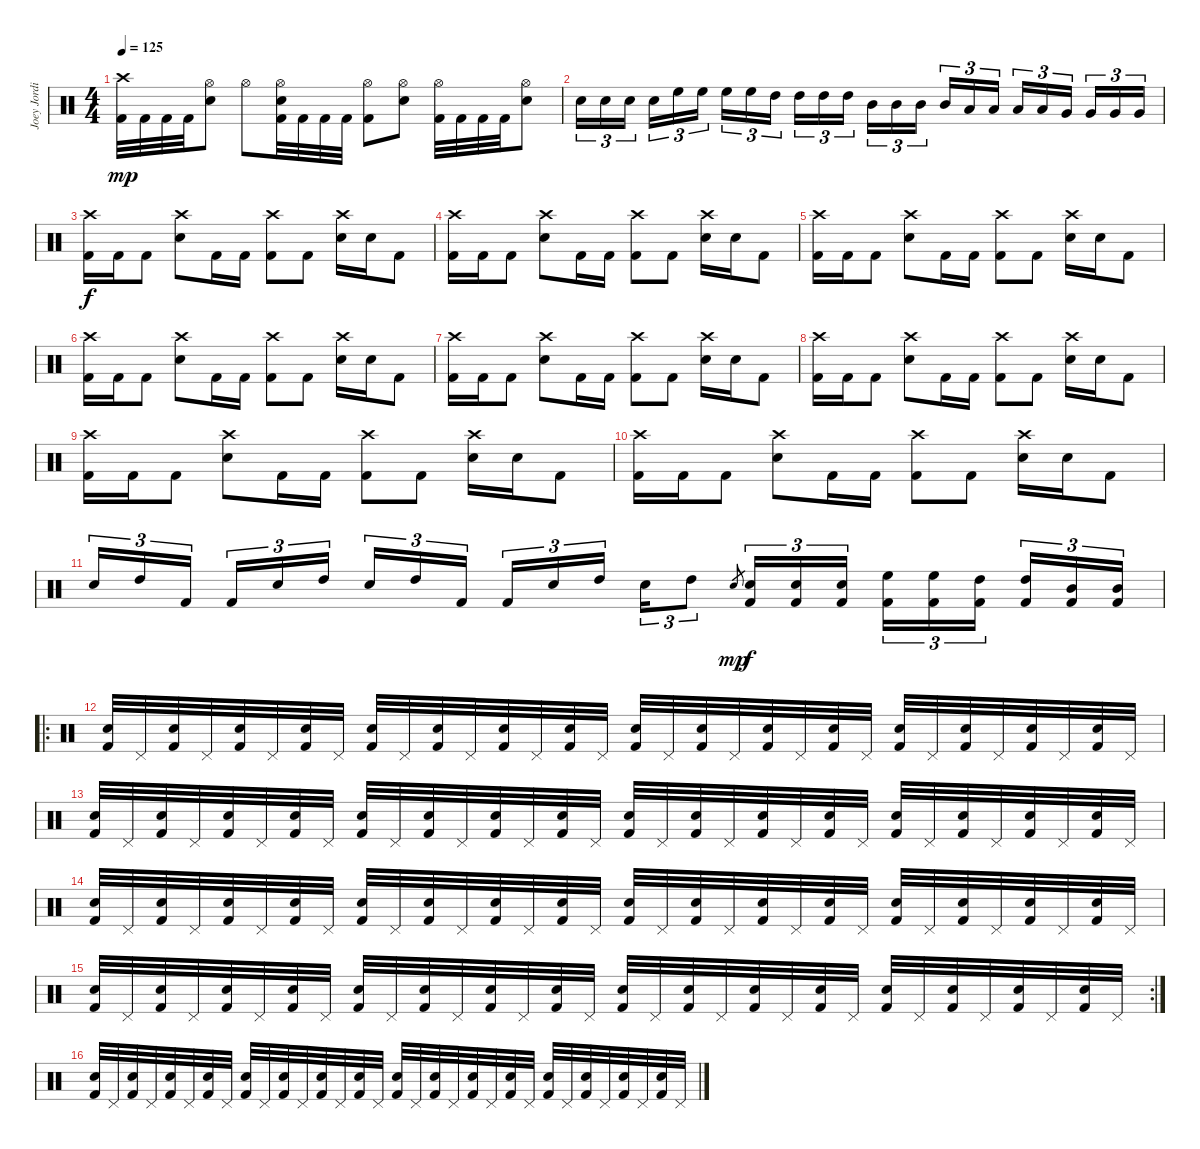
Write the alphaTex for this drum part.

\track ("Joey Jordison" "Joey Jordi") {instrument percussion}
\staff {score}
\articulation defaults
\ts (4 4)
\tempo 125
\clef neutral
\ks c
("Crash high (hit)" "Kick (hit) 2").32{dy mp} "Kick (hit) 2".32 "Kick (hit) 2".32 "Kick (hit) 2".32 ("Hi-Hat (open)" "Electric Snare (hit)").8 "Hi-Hat (open)".8 ("Hi-Hat (open)" "Electric Snare (hit)" "Kick (hit) 2").32 "Kick (hit) 2".32 "Kick (hit) 2".32 "Kick (hit) 2".32 ("Hi-Hat (open)" "Kick (hit) 2").8 ("Hi-Hat (open)" "Electric Snare (hit)").8 ("Hi-Hat (open)" "Kick (hit) 2").32 "Kick (hit) 2".32 "Kick (hit) 2".32 "Kick (hit) 2".32 ("Hi-Hat (open)" "Electric Snare (hit)").8 |
"Electric Snare (hit)".16{tu (3 2)} "Electric Snare (hit)".16{tu (3 2)} "Electric Snare (hit)".16{tu (3 2) beam splitsecondary} "Electric Snare (hit)".16{tu (3 2)} "High Floor Tom (hit)".16{tu (3 2)} "High Floor Tom (hit)".16{tu (3 2)} "High Floor Tom (hit)".16{tu (3 2)} "High Floor Tom (hit)".16{tu (3 2)} "High Tom (hit)".16{tu (3 2) beam splitsecondary} "High Tom (hit)".16{tu (3 2)} "High Tom (hit)".16{tu (3 2)} "High Tom (hit)".16{tu (3 2)} "Mid Tom (hit)".16{tu (3 2)} "Mid Tom (hit)".16{tu (3 2)} "Mid Tom (hit)".16{tu (3 2) beam splitsecondary} "Mid Tom (hit)".16{tu (3 2)} "Low Tom (hit)".16{tu (3 2)} "Low Tom (hit)".16{tu (3 2)} "Low Tom (hit)".16{tu (3 2)} "Low Tom (hit)".16{tu (3 2)} "Very Low Tom (hit)".16{tu (3 2) beam splitsecondary} "Very Low Tom (hit)".16{tu (3 2)} "Very Low Tom (hit)".16{tu (3 2)} "Very Low Tom (hit)".16{tu (3 2)} |
("Crash high (hit)" "Kick (hit) 2").16{dy f} "Kick (hit) 2".16 "Kick (hit) 2".8 ("Crash high (hit)" "Electric Snare (hit)").8 "Kick (hit) 2".16 "Kick (hit) 2".16 ("Crash high (hit)" "Kick (hit) 2").8 "Kick (hit) 2".8 ("Crash high (hit)" "Electric Snare (hit)").16 "Electric Snare (hit)".16 "Kick (hit) 2".8 |
("Crash high (hit)" "Kick (hit) 2").16 "Kick (hit) 2".16 "Kick (hit) 2".8 ("Crash high (hit)" "Electric Snare (hit)").8 "Kick (hit) 2".16 "Kick (hit) 2".16 ("Crash high (hit)" "Kick (hit) 2").8 "Kick (hit) 2".8 ("Crash high (hit)" "Electric Snare (hit)").16 "Electric Snare (hit)".16 "Kick (hit) 2".8 |
("Crash high (hit)" "Kick (hit) 2").16 "Kick (hit) 2".16 "Kick (hit) 2".8 ("Crash high (hit)" "Electric Snare (hit)").8 "Kick (hit) 2".16 "Kick (hit) 2".16 ("Crash high (hit)" "Kick (hit) 2").8 "Kick (hit) 2".8 ("Crash high (hit)" "Electric Snare (hit)").16 "Electric Snare (hit)".16 "Kick (hit) 2".8 |
("Crash high (hit)" "Kick (hit) 2").16 "Kick (hit) 2".16 "Kick (hit) 2".8 ("Crash high (hit)" "Electric Snare (hit)").8 "Kick (hit) 2".16 "Kick (hit) 2".16 ("Crash high (hit)" "Kick (hit) 2").8 "Kick (hit) 2".8 ("Crash high (hit)" "Electric Snare (hit)").16 "Electric Snare (hit)".16 "Kick (hit) 2".8 |
("Crash high (hit)" "Kick (hit) 2").16 "Kick (hit) 2".16 "Kick (hit) 2".8 ("Crash high (hit)" "Electric Snare (hit)").8 "Kick (hit) 2".16 "Kick (hit) 2".16 ("Crash high (hit)" "Kick (hit) 2").8 "Kick (hit) 2".8 ("Crash high (hit)" "Electric Snare (hit)").16 "Electric Snare (hit)".16 "Kick (hit) 2".8 |
("Crash high (hit)" "Kick (hit) 2").16 "Kick (hit) 2".16 "Kick (hit) 2".8 ("Crash high (hit)" "Electric Snare (hit)").8 "Kick (hit) 2".16 "Kick (hit) 2".16 ("Crash high (hit)" "Kick (hit) 2").8 "Kick (hit) 2".8 ("Crash high (hit)" "Electric Snare (hit)").16 "Electric Snare (hit)".16 "Kick (hit) 2".8 |
("Crash high (hit)" "Kick (hit) 2").16 "Kick (hit) 2".16 "Kick (hit) 2".8 ("Crash high (hit)" "Electric Snare (hit)").8 "Kick (hit) 2".16 "Kick (hit) 2".16 ("Crash high (hit)" "Kick (hit) 2").8 "Kick (hit) 2".8 ("Crash high (hit)" "Electric Snare (hit)").16 "Electric Snare (hit)".16 "Kick (hit) 2".8 |
("Crash high (hit)" "Kick (hit) 2").16 "Kick (hit) 2".16 "Kick (hit) 2".8 ("Crash high (hit)" "Electric Snare (hit)").8 "Kick (hit) 2".16 "Kick (hit) 2".16 ("Crash high (hit)" "Kick (hit) 2").8 "Kick (hit) 2".8 ("Crash high (hit)" "Electric Snare (hit)").16 "Electric Snare (hit)".16 "Kick (hit) 2".8 |
"Electric Snare (hit)".16{tu (3 2)} "High Tom (hit)".16{tu (3 2)} "Kick (hit) 2".16{tu (3 2) beam splitsecondary} "Kick (hit) 2".16{tu (3 2)} "Electric Snare (hit)".16{tu (3 2)} "High Tom (hit)".16{tu (3 2)} "Electric Snare (hit)".16{tu (3 2)} "High Tom (hit)".16{tu (3 2)} "Kick (hit) 2".16{tu (3 2) beam splitsecondary} "Kick (hit) 2".16{tu (3 2)} "Electric Snare (hit)".16{tu (3 2)} "High Tom (hit)".16{tu (3 2)} "Electric Snare (hit)".16{tu (3 2)} "High Tom (hit)".8{tu (3 2)} "Electric Snare (hit)".8{gr dy mp} ("Electric Snare (hit)" "Kick (hit) 2").16{tu (3 2) dy f} ("Electric Snare (hit)" "Kick (hit) 2").16{tu (3 2)} ("Electric Snare (hit)" "Kick (hit) 2").16{tu (3 2)} ("High Floor Tom (hit)" "Kick (hit) 2").16{tu (3 2)} ("High Floor Tom (hit)" "Kick (hit) 2").16{tu (3 2)} ("High Tom (hit)" "Kick (hit) 2").16{tu (3 2) beam splitsecondary} ("High Tom (hit)" "Kick (hit) 2").16{tu (3 2)} ("Mid Tom (hit)" "Kick (hit) 2").16{tu (3 2)} ("Mid Tom (hit)" "Kick (hit) 2").16{tu (3 2)} |
\ro
("Electric Snare (hit)" "Kick (hit) 2").32 "Pedal Hi-Hat (hit)".32 ("Electric Snare (hit)" "Kick (hit) 2").32 "Pedal Hi-Hat (hit)".32 ("Electric Snare (hit)" "Kick (hit) 2").32 "Pedal Hi-Hat (hit)".32 ("Electric Snare (hit)" "Kick (hit) 2").32 "Pedal Hi-Hat (hit)".32 ("Electric Snare (hit)" "Kick (hit) 2").32 "Pedal Hi-Hat (hit)".32 ("Electric Snare (hit)" "Kick (hit) 2").32 "Pedal Hi-Hat (hit)".32 ("Electric Snare (hit)" "Kick (hit) 2").32 "Pedal Hi-Hat (hit)".32 ("Electric Snare (hit)" "Kick (hit) 2").32 "Pedal Hi-Hat (hit)".32 ("Electric Snare (hit)" "Kick (hit) 2").32 "Pedal Hi-Hat (hit)".32 ("Electric Snare (hit)" "Kick (hit) 2").32 "Pedal Hi-Hat (hit)".32 ("Electric Snare (hit)" "Kick (hit) 2").32 "Pedal Hi-Hat (hit)".32 ("Electric Snare (hit)" "Kick (hit) 2").32 "Pedal Hi-Hat (hit)".32 ("Electric Snare (hit)" "Kick (hit) 2").32 "Pedal Hi-Hat (hit)".32 ("Electric Snare (hit)" "Kick (hit) 2").32 "Pedal Hi-Hat (hit)".32 ("Electric Snare (hit)" "Kick (hit) 2").32 "Pedal Hi-Hat (hit)".32 ("Electric Snare (hit)" "Kick (hit) 2").32 "Pedal Hi-Hat (hit)".32 |
("Electric Snare (hit)" "Kick (hit) 2").32 "Pedal Hi-Hat (hit)".32 ("Electric Snare (hit)" "Kick (hit) 2").32 "Pedal Hi-Hat (hit)".32 ("Electric Snare (hit)" "Kick (hit) 2").32 "Pedal Hi-Hat (hit)".32 ("Electric Snare (hit)" "Kick (hit) 2").32 "Pedal Hi-Hat (hit)".32 ("Electric Snare (hit)" "Kick (hit) 2").32 "Pedal Hi-Hat (hit)".32 ("Electric Snare (hit)" "Kick (hit) 2").32 "Pedal Hi-Hat (hit)".32 ("Electric Snare (hit)" "Kick (hit) 2").32 "Pedal Hi-Hat (hit)".32 ("Electric Snare (hit)" "Kick (hit) 2").32 "Pedal Hi-Hat (hit)".32 ("Electric Snare (hit)" "Kick (hit) 2").32 "Pedal Hi-Hat (hit)".32 ("Electric Snare (hit)" "Kick (hit) 2").32 "Pedal Hi-Hat (hit)".32 ("Electric Snare (hit)" "Kick (hit) 2").32 "Pedal Hi-Hat (hit)".32 ("Electric Snare (hit)" "Kick (hit) 2").32 "Pedal Hi-Hat (hit)".32 ("Electric Snare (hit)" "Kick (hit) 2").32 "Pedal Hi-Hat (hit)".32 ("Electric Snare (hit)" "Kick (hit) 2").32 "Pedal Hi-Hat (hit)".32 ("Electric Snare (hit)" "Kick (hit) 2").32 "Pedal Hi-Hat (hit)".32 ("Electric Snare (hit)" "Kick (hit) 2").32 "Pedal Hi-Hat (hit)".32 |
("Electric Snare (hit)" "Kick (hit) 2").32 "Pedal Hi-Hat (hit)".32 ("Electric Snare (hit)" "Kick (hit) 2").32 "Pedal Hi-Hat (hit)".32 ("Electric Snare (hit)" "Kick (hit) 2").32 "Pedal Hi-Hat (hit)".32 ("Electric Snare (hit)" "Kick (hit) 2").32 "Pedal Hi-Hat (hit)".32 ("Electric Snare (hit)" "Kick (hit) 2").32 "Pedal Hi-Hat (hit)".32 ("Electric Snare (hit)" "Kick (hit) 2").32 "Pedal Hi-Hat (hit)".32 ("Electric Snare (hit)" "Kick (hit) 2").32 "Pedal Hi-Hat (hit)".32 ("Electric Snare (hit)" "Kick (hit) 2").32 "Pedal Hi-Hat (hit)".32 ("Electric Snare (hit)" "Kick (hit) 2").32 "Pedal Hi-Hat (hit)".32 ("Electric Snare (hit)" "Kick (hit) 2").32 "Pedal Hi-Hat (hit)".32 ("Electric Snare (hit)" "Kick (hit) 2").32 "Pedal Hi-Hat (hit)".32 ("Electric Snare (hit)" "Kick (hit) 2").32 "Pedal Hi-Hat (hit)".32 ("Electric Snare (hit)" "Kick (hit) 2").32 "Pedal Hi-Hat (hit)".32 ("Electric Snare (hit)" "Kick (hit) 2").32 "Pedal Hi-Hat (hit)".32 ("Electric Snare (hit)" "Kick (hit) 2").32 "Pedal Hi-Hat (hit)".32 ("Electric Snare (hit)" "Kick (hit) 2").32 "Pedal Hi-Hat (hit)".32 |
\rc 2
("Electric Snare (hit)" "Kick (hit) 2").32 "Pedal Hi-Hat (hit)".32 ("Electric Snare (hit)" "Kick (hit) 2").32 "Pedal Hi-Hat (hit)".32 ("Electric Snare (hit)" "Kick (hit) 2").32 "Pedal Hi-Hat (hit)".32 ("Electric Snare (hit)" "Kick (hit) 2").32 "Pedal Hi-Hat (hit)".32 ("Electric Snare (hit)" "Kick (hit) 2").32 "Pedal Hi-Hat (hit)".32 ("Electric Snare (hit)" "Kick (hit) 2").32 "Pedal Hi-Hat (hit)".32 ("Electric Snare (hit)" "Kick (hit) 2").32 "Pedal Hi-Hat (hit)".32 ("Electric Snare (hit)" "Kick (hit) 2").32 "Pedal Hi-Hat (hit)".32 ("Electric Snare (hit)" "Kick (hit) 2").32 "Pedal Hi-Hat (hit)".32 ("Electric Snare (hit)" "Kick (hit) 2").32 "Pedal Hi-Hat (hit)".32 ("Electric Snare (hit)" "Kick (hit) 2").32 "Pedal Hi-Hat (hit)".32 ("Electric Snare (hit)" "Kick (hit) 2").32 "Pedal Hi-Hat (hit)".32 ("Electric Snare (hit)" "Kick (hit) 2").32 "Pedal Hi-Hat (hit)".32 ("Electric Snare (hit)" "Kick (hit) 2").32 "Pedal Hi-Hat (hit)".32 ("Electric Snare (hit)" "Kick (hit) 2").32 "Pedal Hi-Hat (hit)".32 ("Electric Snare (hit)" "Kick (hit) 2").32 "Pedal Hi-Hat (hit)".32 |
("Electric Snare (hit)" "Kick (hit) 2").32 "Pedal Hi-Hat (hit)".32 ("Electric Snare (hit)" "Kick (hit) 2").32 "Pedal Hi-Hat (hit)".32 ("Electric Snare (hit)" "Kick (hit) 2").32 "Pedal Hi-Hat (hit)".32 ("Electric Snare (hit)" "Kick (hit) 2").32 "Pedal Hi-Hat (hit)".32 ("Electric Snare (hit)" "Kick (hit) 2").32 "Pedal Hi-Hat (hit)".32 ("Electric Snare (hit)" "Kick (hit) 2").32 "Pedal Hi-Hat (hit)".32 ("Electric Snare (hit)" "Kick (hit) 2").32 "Pedal Hi-Hat (hit)".32 ("Electric Snare (hit)" "Kick (hit) 2").32 "Pedal Hi-Hat (hit)".32 ("Electric Snare (hit)" "Kick (hit) 2").32 "Pedal Hi-Hat (hit)".32 ("Electric Snare (hit)" "Kick (hit) 2").32 "Pedal Hi-Hat (hit)".32 ("Electric Snare (hit)" "Kick (hit) 2").32 "Pedal Hi-Hat (hit)".32 ("Electric Snare (hit)" "Kick (hit) 2").32 "Pedal Hi-Hat (hit)".32 ("Electric Snare (hit)" "Kick (hit) 2").32 "Pedal Hi-Hat (hit)".32 ("Electric Snare (hit)" "Kick (hit) 2").32 "Pedal Hi-Hat (hit)".32 ("Electric Snare (hit)" "Kick (hit) 2").32 "Pedal Hi-Hat (hit)".32 ("Electric Snare (hit)" "Kick (hit) 2").32 "Pedal Hi-Hat (hit)".32
